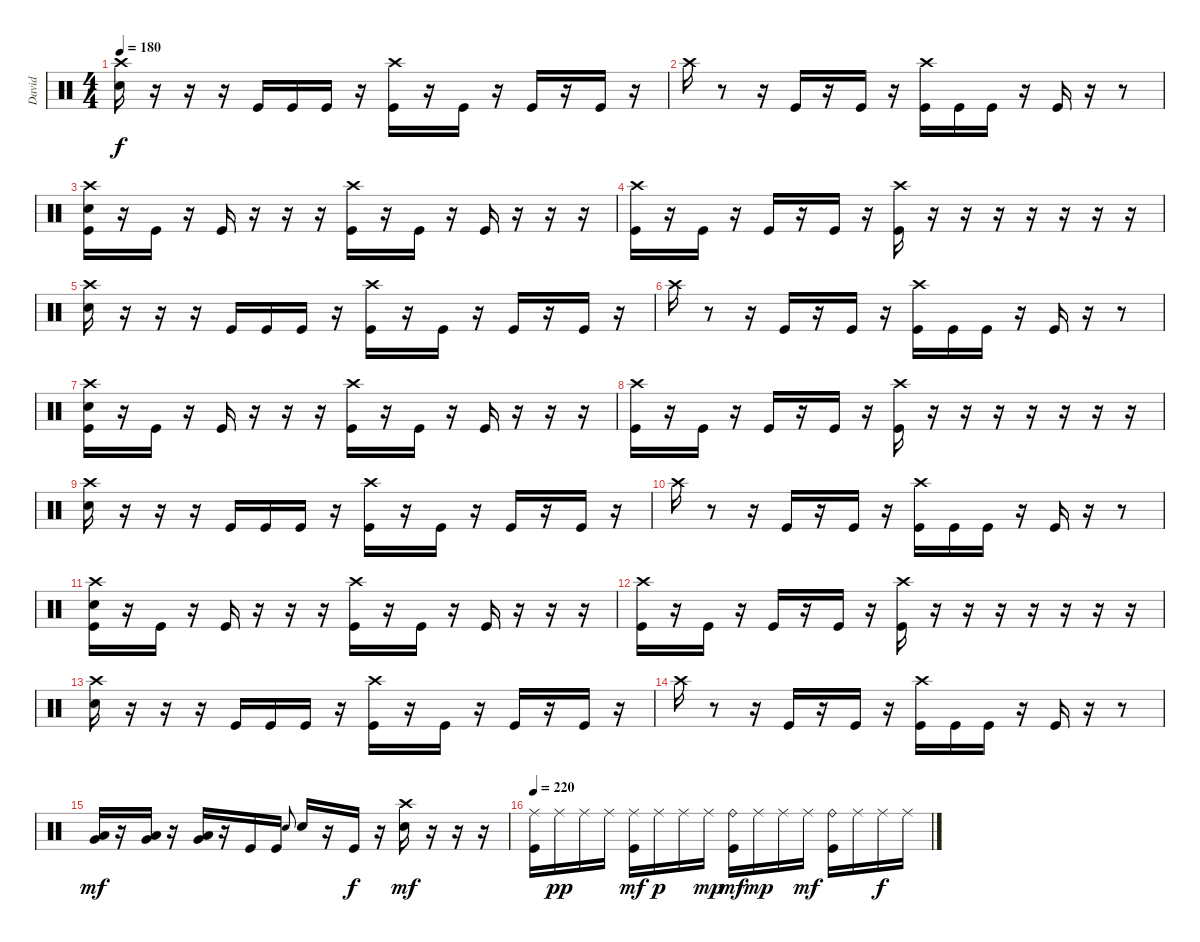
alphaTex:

\track ("David" "David") {instrument percussion}
\staff {score}
\articulation defaults
\ts (4 4)
\tempo 180
\clef neutral
\ks c
("Crash high (hit)" "Electric Snare (hit)").16{dy f} r.16 r.16 r.16 "Kick (hit)".16 "Kick (hit)".16 "Kick (hit)".16 r.16 ("Crash high (hit)" "Kick (hit)").16 r.16 "Kick (hit)".16 r.16 "Kick (hit)".16 r.16 "Kick (hit)".16 r.16 |
"Crash high (hit)".16 r.8 r.16 "Kick (hit)".16 r.16 "Kick (hit)".16 r.16 ("Crash high (hit)" "Kick (hit)").16 "Kick (hit)".16 "Kick (hit)".16 r.16 "Kick (hit)".16 r.16 r.8 |
("Crash high (hit)" "Electric Snare (hit)" "Kick (hit)").16 r.16 "Kick (hit)".16 r.16 "Kick (hit)".16 r.16 r.16 r.16 ("Crash high (hit)" "Kick (hit)").16 r.16 "Kick (hit)".16 r.16 "Kick (hit)".16 r.16 r.16 r.16 |
("Crash high (hit)" "Kick (hit)").16 r.16 "Kick (hit)".16 r.16 "Kick (hit)".16 r.16 "Kick (hit)".16 r.16 ("Crash high (hit)" "Kick (hit)").16 r.16 r.16 r.16 r.16 r.16 r.16 r.16 |
("Crash high (hit)" "Electric Snare (hit)").16 r.16 r.16 r.16 "Kick (hit)".16 "Kick (hit)".16 "Kick (hit)".16 r.16 ("Crash high (hit)" "Kick (hit)").16 r.16 "Kick (hit)".16 r.16 "Kick (hit)".16 r.16 "Kick (hit)".16 r.16 |
"Crash high (hit)".16 r.8 r.16 "Kick (hit)".16 r.16 "Kick (hit)".16 r.16 ("Crash high (hit)" "Kick (hit)").16 "Kick (hit)".16 "Kick (hit)".16 r.16 "Kick (hit)".16 r.16 r.8 |
("Crash high (hit)" "Electric Snare (hit)" "Kick (hit)").16 r.16 "Kick (hit)".16 r.16 "Kick (hit)".16 r.16 r.16 r.16 ("Crash high (hit)" "Kick (hit)").16 r.16 "Kick (hit)".16 r.16 "Kick (hit)".16 r.16 r.16 r.16 |
("Crash high (hit)" "Kick (hit)").16 r.16 "Kick (hit)".16 r.16 "Kick (hit)".16 r.16 "Kick (hit)".16 r.16 ("Crash high (hit)" "Kick (hit)").16 r.16 r.16 r.16 r.16 r.16 r.16 r.16 |
("Crash high (hit)" "Electric Snare (hit)").16 r.16 r.16 r.16 "Kick (hit)".16 "Kick (hit)".16 "Kick (hit)".16 r.16 ("Crash high (hit)" "Kick (hit)").16 r.16 "Kick (hit)".16 r.16 "Kick (hit)".16 r.16 "Kick (hit)".16 r.16 |
"Crash high (hit)".16 r.8 r.16 "Kick (hit)".16 r.16 "Kick (hit)".16 r.16 ("Crash high (hit)" "Kick (hit)").16 "Kick (hit)".16 "Kick (hit)".16 r.16 "Kick (hit)".16 r.16 r.8 |
("Crash high (hit)" "Electric Snare (hit)" "Kick (hit)").16 r.16 "Kick (hit)".16 r.16 "Kick (hit)".16 r.16 r.16 r.16 ("Crash high (hit)" "Kick (hit)").16 r.16 "Kick (hit)".16 r.16 "Kick (hit)".16 r.16 r.16 r.16 |
("Crash high (hit)" "Kick (hit)").16 r.16 "Kick (hit)".16 r.16 "Kick (hit)".16 r.16 "Kick (hit)".16 r.16 ("Crash high (hit)" "Kick (hit)").16 r.16 r.16 r.16 r.16 r.16 r.16 r.16 |
("Crash high (hit)" "Electric Snare (hit)").16 r.16 r.16 r.16 "Kick (hit)".16 "Kick (hit)".16 "Kick (hit)".16 r.16 ("Crash high (hit)" "Kick (hit)").16 r.16 "Kick (hit)".16 r.16 "Kick (hit)".16 r.16 "Kick (hit)".16 r.16 |
"Crash high (hit)".16 r.8 r.16 "Kick (hit)".16 r.16 "Kick (hit)".16 r.16 ("Crash high (hit)" "Kick (hit)").16 "Kick (hit)".16 "Kick (hit)".16 r.16 "Kick (hit)".16 r.16 r.8 |
("Very Low Tom (hit)" "Low Floor Tom (hit)").16{dy mf} r.16 ("Very Low Tom (hit)" "Low Floor Tom (hit)").16 r.16 ("Very Low Tom (hit)" "Low Floor Tom (hit)").16 r.16 "Kick (hit)".16 "Kick (hit)".16 "Electric Snare (hit)".8{gr onbeat} "Electric Snare (hit)".16 r.16 "Kick (hit)".16{dy f} r.16 ("Crash high (hit)" "Electric Snare (hit)").16{dy mf} r.16 r.16 r.16 |
\tempo 220
("Ride (middle)" "Kick (hit)").16 "Ride (middle)".16{dy pp} "Ride (middle)".16 "Ride (middle)".16 ("Ride (middle)" "Kick (hit)").16{dy mf} "Ride (middle)".16{dy p} "Ride (middle)".16 "Ride (middle)".16{dy mp} ("Ride (bell)" "Kick (hit)").16{dy mf} "Ride (middle)".16{dy mp} "Ride (middle)".16 "Ride (middle)".16{dy mf} ("Ride (bell)" "Kick (hit)").16 "Ride (middle)".16 "Ride (middle)".16{dy f} "Ride (middle)".16
